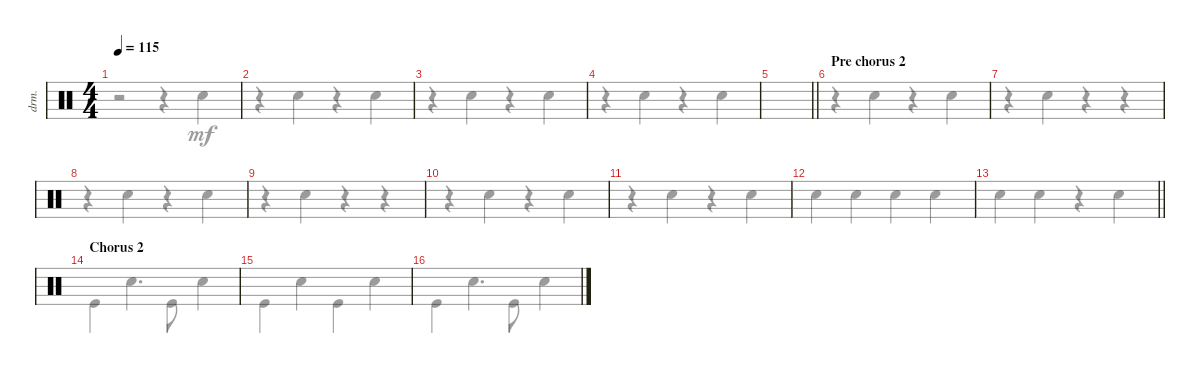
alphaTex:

\defaultSystemsLayout 4
\bracketExtendMode groupsimilarinstruments
\otherSystemsTrackNameOrientation horizontal
\chordDiagramsInScore
\track ("Drumkit" "drm.") {instrument percussion}
\staff {score}
\articulation defaults
\voice
\ts (4 4)
\tempo 115
\clef neutral
\ks c
|
|
|
|
\barLineRight lightlight
|
\section ("" "Pre chorus 2")
|
|
|
|
|
|
|
\barLineRight lightlight
|
\section ("" "Chorus 2")
|
|
\voice
\clef neutral
\ks c
r.2{dy mf} r.4 "Snare (hit) 2".4 |
r.4 "Snare (hit) 2".4 r.4 "Snare (hit) 2".4 |
r.4 "Snare (hit) 2".4 r.4 "Snare (hit) 2".4 |
r.4 "Snare (hit) 2".4 r.4 "Snare (hit) 2".4 |
\barLineRight lightlight
|
r.4 "Snare (hit) 2".4 r.4 "Snare (hit) 2".4 |
r.4 "Snare (hit) 2".4 r.4 r.4 |
r.4 "Snare (hit) 2".4 r.4 "Snare (hit) 2".4 |
r.4 "Snare (hit) 2".4 r.4 r.4 |
r.4 "Snare (hit) 2".4 r.4 "Snare (hit) 2".4 |
r.4 "Snare (hit) 2".4 r.4 "Snare (hit) 2".4 |
"Snare (hit) 2".4 "Snare (hit) 2".4 "Snare (hit) 2".4 "Snare (hit) 2".4 |
\barLineRight lightlight "Snare (hit) 2".4 "Snare (hit) 2".4
r.4 "Snare (hit) 2".4 |
"Kick (hit)".4 "Snare (hit) 2".4{d} "Kick (hit)".8 "Snare (hit) 2".4 |
"Kick (hit)".4 "Snare (hit) 2".4 "Kick (hit)".4 "Snare (hit) 2".4 |
"Kick (hit)".4 "Snare (hit) 2".4{d} "Kick (hit)".8 "Snare (hit) 2".4
